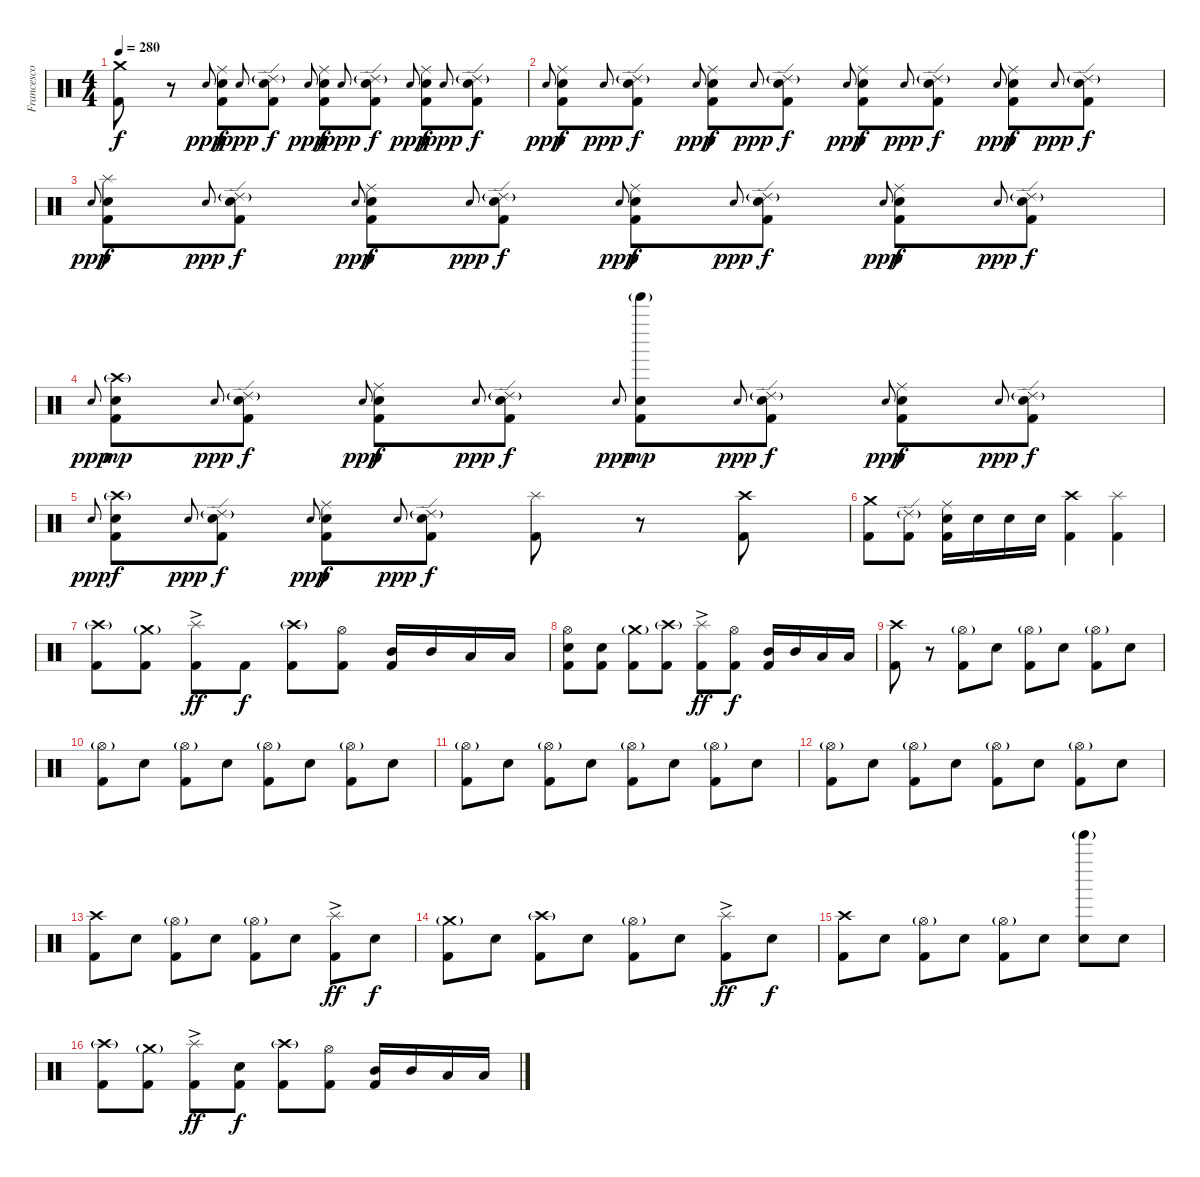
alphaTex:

\track ("Francesco Ferrini" "Francesco ") {instrument percussion}
\staff {score}
\articulation defaults
\ts (4 4)
\tempo 280
\clef neutral
\ks c
("Crash medium (hit)" "Kick (hit) 2").8{dy f} r.8 "Electric Snare (hit)"{h}.8{gr onbeat dy ppp} ("Ride (middle)" "Electric Snare (hit)" "Kick (hit) 2").8{dy f} "Electric Snare (hit)"{h}.8{gr onbeat dy ppp} ("Ride (edge) 2"{g} "Electric Snare (hit)" "Kick (hit) 2").8{dy f} "Electric Snare (hit)"{h}.8{gr onbeat dy ppp} ("Ride (middle)" "Electric Snare (hit)" "Kick (hit) 2").8{dy f} "Electric Snare (hit)"{h}.8{gr onbeat dy ppp} ("Ride (edge) 2"{g} "Electric Snare (hit)" "Kick (hit) 2").8{dy f} "Electric Snare (hit)"{h}.8{gr onbeat dy ppp} ("Ride (middle)" "Electric Snare (hit)" "Kick (hit) 2").8{dy f} "Electric Snare (hit)"{h}.8{gr onbeat dy ppp} ("Ride (edge) 2"{g} "Electric Snare (hit)" "Kick (hit) 2").8{dy f} |
"Electric Snare (hit)"{h}.8{gr onbeat dy ppp} ("Ride (middle)" "Electric Snare (hit)" "Kick (hit) 2").8{dy f} "Electric Snare (hit)"{h}.8{gr onbeat dy ppp} ("Ride (edge) 2"{g} "Electric Snare (hit)" "Kick (hit) 2").8{dy f} "Electric Snare (hit)"{h}.8{gr onbeat dy ppp} ("Ride (middle)" "Electric Snare (hit)" "Kick (hit) 2").8{dy f} "Electric Snare (hit)"{h}.8{gr onbeat dy ppp} ("Ride (edge) 2"{g} "Electric Snare (hit)" "Kick (hit) 2").8{dy f} "Electric Snare (hit)"{h}.8{gr onbeat dy ppp} ("Ride (middle)" "Electric Snare (hit)" "Kick (hit) 2").8{dy f} "Electric Snare (hit)"{h}.8{gr onbeat dy ppp} ("Ride (edge) 2"{g} "Electric Snare (hit)" "Kick (hit) 2").8{dy f} "Electric Snare (hit)"{h}.8{gr onbeat dy ppp} ("Ride (middle)" "Electric Snare (hit)" "Kick (hit) 2").8{dy f} "Electric Snare (hit)"{h}.8{gr onbeat dy ppp} ("Ride (edge) 2"{g} "Electric Snare (hit)" "Kick (hit) 2").8{dy f} |
"Electric Snare (hit)"{h}.8{gr onbeat dy ppp} ("Splash (hit)" "Electric Snare (hit)" "Kick (hit) 2").8{dy f} "Electric Snare (hit)"{h}.8{gr onbeat dy ppp} ("Ride (edge) 2"{g} "Electric Snare (hit)" "Kick (hit) 2").8{dy f} "Electric Snare (hit)"{h}.8{gr onbeat dy ppp} ("Ride (middle)" "Electric Snare (hit)" "Kick (hit) 2").8{dy f} "Electric Snare (hit)"{h}.8{gr onbeat dy ppp} ("Ride (edge) 2"{g} "Electric Snare (hit)" "Kick (hit) 2").8{dy f} "Electric Snare (hit)"{h}.8{gr onbeat dy ppp} ("Ride (middle)" "Electric Snare (hit)" "Kick (hit) 2").8{dy f} "Electric Snare (hit)"{h}.8{gr onbeat dy ppp} ("Ride (edge) 2"{g} "Electric Snare (hit)" "Kick (hit) 2").8{dy f} "Electric Snare (hit)"{h}.8{gr onbeat dy ppp} ("Ride (middle)" "Electric Snare (hit)" "Kick (hit) 2").8{dy f} "Electric Snare (hit)"{h}.8{gr onbeat dy ppp} ("Ride (edge) 2"{g} "Electric Snare (hit)" "Kick (hit) 2").8{dy f} |
"Electric Snare (hit)"{h}.8{gr onbeat dy ppp} ("Crash high (hit)"{g} "Electric Snare (hit)" "Kick (hit) 2").8{dy mp} "Electric Snare (hit)"{h}.8{gr onbeat dy ppp} ("Ride (edge) 2"{g} "Electric Snare (hit)" "Kick (hit) 2").8{dy f} "Electric Snare (hit)"{h}.8{gr onbeat dy ppp} ("Ride (middle)" "Electric Snare (hit)" "Kick (hit) 2").8{dy f} "Electric Snare (hit)"{h}.8{gr onbeat dy ppp} ("Ride (edge) 2"{g} "Electric Snare (hit)" "Kick (hit) 2").8{dy f} "Electric Snare (hit)"{h}.8{gr onbeat dy ppp} ("Tinkle Bell (hit)"{g} "Electric Snare (hit)" "Kick (hit) 2").8{dy mp} "Electric Snare (hit)"{h}.8{gr onbeat dy ppp} ("Ride (edge) 2"{g} "Electric Snare (hit)" "Kick (hit) 2").8{dy f} "Electric Snare (hit)"{h}.8{gr onbeat dy ppp} ("Ride (middle)" "Electric Snare (hit)" "Kick (hit) 2").8{dy f} "Electric Snare (hit)"{h}.8{gr onbeat dy ppp} ("Ride (edge) 2"{g} "Electric Snare (hit)" "Kick (hit) 2").8{dy f} |
"Electric Snare (hit)"{h}.8{gr onbeat dy ppp} ("Crash high (hit)"{g} "Electric Snare (hit)" "Kick (hit) 2").8{dy f} "Electric Snare (hit)"{h}.8{gr onbeat dy ppp} ("Ride (edge) 2"{g} "Electric Snare (hit)" "Kick (hit) 2").8{dy f} "Electric Snare (hit)"{h}.8{gr onbeat dy ppp} ("Ride (middle)" "Electric Snare (hit)" "Kick (hit) 2").8{dy f} "Electric Snare (hit)"{h}.8{gr onbeat dy ppp} ("Ride (edge) 2"{g} "Electric Snare (hit)" "Kick (hit) 2").8{dy f} ("Splash (hit)" "Kick (hit) 2").8 r.8 ("Crash high (hit)" "Kick (hit) 2").8 |
("Crash medium (hit)" "Kick (hit) 2").8 ("Ride (edge) 2"{g} "Kick (hit) 2").8 ("Ride (middle)" "Electric Snare (hit)" "Kick (hit) 2").16 "Electric Snare (hit)".16 "Electric Snare (hit)".16 "Electric Snare (hit)".16 ("Crash high (hit)" "Kick (hit) 2").4 ("Splash (hit)" "Kick (hit) 2").4 |
("Crash high (hit)"{g} "Kick (hit) 2").8 ("Crash medium (hit)"{g} "Kick (hit) 2").8 ("Splash (hit)"{ac} "Kick (hit) 2").8{dy ff} "Kick (hit) 2".8{dy f} ("Crash high (hit)"{g} "Kick (hit) 2").8 ("Hi-Hat (open)" "Kick (hit) 2").8 ("Mid Tom (hit)" "Kick (hit) 2").16 "Mid Tom (hit)".16 "Low Tom (hit)".16 "Low Tom (hit)".16 |
("Hi-Hat (open)" "Electric Snare (hit)" "Kick (hit) 2").8 ("Electric Snare (hit)" "Kick (hit) 2").8 ("Crash medium (hit)"{g} "Kick (hit) 2").8 ("Crash high (hit)"{g} "Kick (hit) 2").8 ("Splash (hit)"{ac} "Kick (hit) 2").8{dy ff} ("Hi-Hat (open)" "Kick (hit) 2").8{dy f} ("Mid Tom (hit)" "Kick (hit) 2").16 "Mid Tom (hit)".16 "Low Tom (hit)".16 "Low Tom (hit)".16 |
("Crash high (hit)" "Kick (hit) 2").8 r.8 ("Hi-Hat (open)"{g} "Kick (hit) 2").8 "Electric Snare (hit)".8 ("Hi-Hat (open)"{g} "Kick (hit) 2").8 "Electric Snare (hit)".8 ("Hi-Hat (open)"{g} "Kick (hit) 2").8 "Electric Snare (hit)".8 |
("Hi-Hat (open)"{g} "Kick (hit) 2").8 "Electric Snare (hit)".8 ("Hi-Hat (open)"{g} "Kick (hit) 2").8 "Electric Snare (hit)".8 ("Hi-Hat (open)"{g} "Kick (hit) 2").8 "Electric Snare (hit)".8 ("Hi-Hat (open)"{g} "Kick (hit) 2").8 "Electric Snare (hit)".8 |
("Hi-Hat (open)"{g} "Kick (hit) 2").8 "Electric Snare (hit)".8 ("Hi-Hat (open)"{g} "Kick (hit) 2").8 "Electric Snare (hit)".8 ("Hi-Hat (open)"{g} "Kick (hit) 2").8 "Electric Snare (hit)".8 ("Hi-Hat (open)"{g} "Kick (hit) 2").8 "Electric Snare (hit)".8 |
("Hi-Hat (open)"{g} "Kick (hit) 2").8 "Electric Snare (hit)".8 ("Hi-Hat (open)"{g} "Kick (hit) 2").8 "Electric Snare (hit)".8 ("Hi-Hat (open)"{g} "Kick (hit) 2").8 "Electric Snare (hit)".8 ("Hi-Hat (open)"{g} "Kick (hit) 2").8 "Electric Snare (hit)".8 |
("Crash high (hit)" "Kick (hit) 2").8 "Electric Snare (hit)".8 ("Hi-Hat (open)"{g} "Kick (hit) 2").8 "Electric Snare (hit)".8 ("Hi-Hat (open)"{g} "Kick (hit) 2").8 "Electric Snare (hit)".8 ("Splash (hit)"{ac} "Kick (hit) 2").8{dy ff} "Electric Snare (hit)".8{dy f} |
("Crash medium (hit)"{g} "Kick (hit) 2").8 "Electric Snare (hit)".8 ("Crash high (hit)"{g} "Kick (hit) 2").8 "Electric Snare (hit)".8 ("Hi-Hat (open)"{g} "Kick (hit) 2").8 "Electric Snare (hit)".8 ("Splash (hit)"{ac} "Kick (hit) 2").8{dy ff} "Electric Snare (hit)".8{dy f} |
("Crash high (hit)" "Kick (hit) 2").8 "Electric Snare (hit)".8 ("Hi-Hat (open)"{g} "Kick (hit) 2").8 "Electric Snare (hit)".8 ("Hi-Hat (open)"{g} "Kick (hit) 2").8 "Electric Snare (hit)".8 ("Tinkle Bell (hit)"{g} "Electric Snare (hit)").8 "Electric Snare (hit)".8 |
("Crash high (hit)"{g} "Kick (hit) 2").8 ("Crash medium (hit)"{g} "Kick (hit) 2").8 ("Splash (hit)"{ac} "Kick (hit) 2").8{dy ff} ("Electric Snare (hit)" "Kick (hit) 2").8{dy f} ("Crash high (hit)"{g} "Kick (hit) 2").8 ("Hi-Hat (open)" "Kick (hit) 2").8 ("Mid Tom (hit)" "Kick (hit) 2").16 "Mid Tom (hit)".16 "Low Tom (hit)".16 "Low Tom (hit)".16
